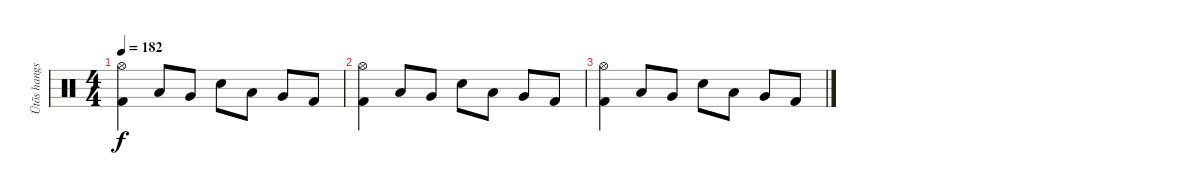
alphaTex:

\track ("Ütõs hangszer" "Ütõs hangs") {instrument percussion}
\staff {score}
\articulation defaults
\ts (4 4)
\tempo 182
\clef neutral
\ks c
("Hi-Hat (open)" "Kick (hit) 2").4{dy f} "Low Tom (hit)".8 "Very Low Tom (hit)".8 "Electric Snare (hit)".8 "Low Tom (hit)".8 "Very Low Tom (hit)".8 "Kick (hit) 2".8 |
("Hi-Hat (open)" "Kick (hit) 2").4 "Low Tom (hit)".8 "Very Low Tom (hit)".8 "Electric Snare (hit)".8 "Low Tom (hit)".8 "Very Low Tom (hit)".8 "Kick (hit) 2".8 |
("Hi-Hat (open)" "Kick (hit) 2").4 "Low Tom (hit)".8 "Very Low Tom (hit)".8 "Electric Snare (hit)".8 "Low Tom (hit)".8 "Very Low Tom (hit)".8 "Kick (hit) 2".8
